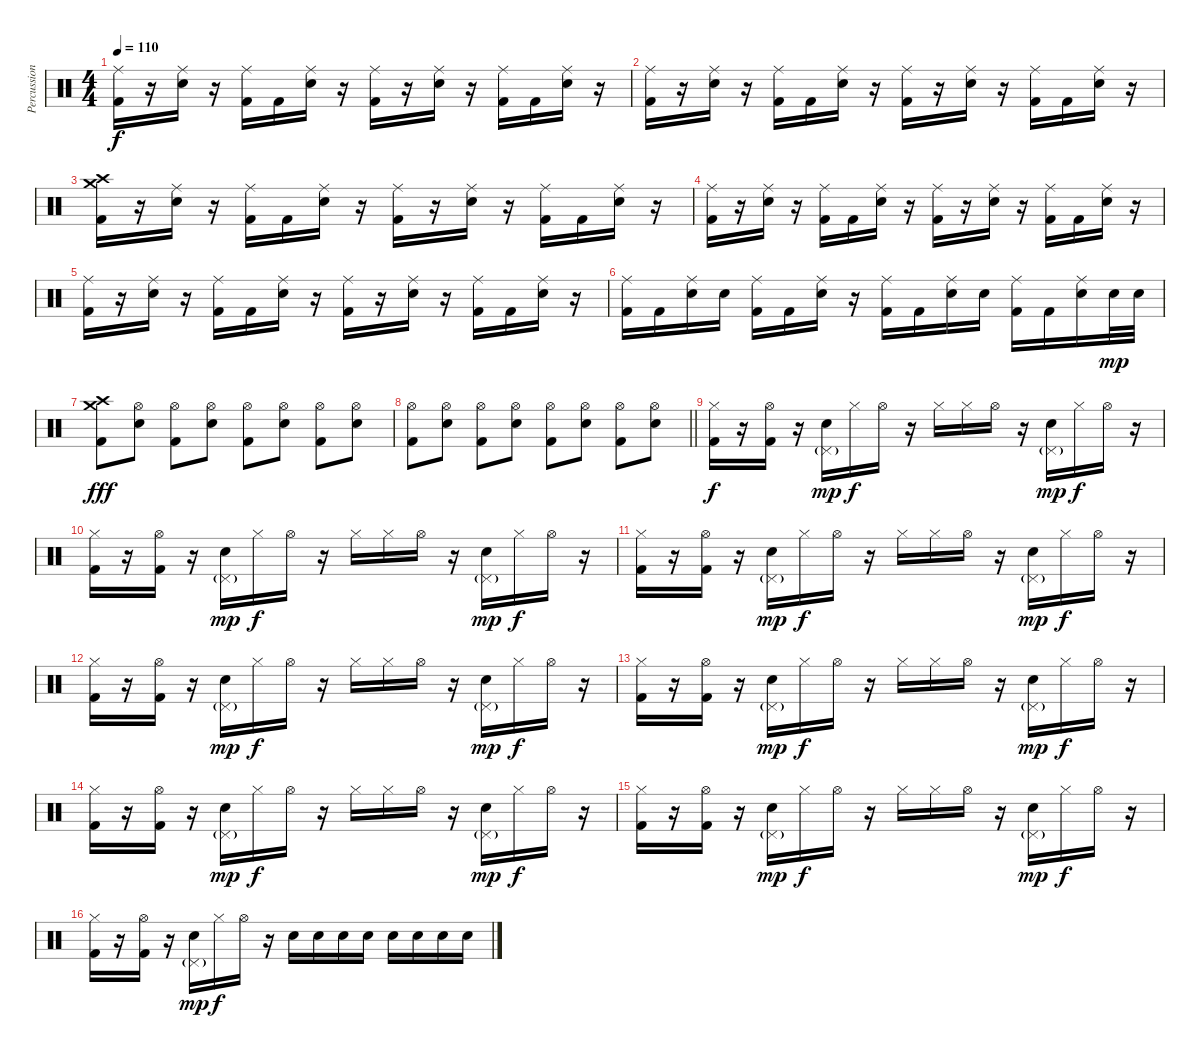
\track ("Percussion" "Percussion") {instrument percussion}
\staff {score}
\articulation defaults
\ts (4 4)
\tempo 110
\clef neutral
\ks c
("Ride (middle)" "Kick (hit) 2").16{dy f} r.16 ("Ride (middle)" "Electric Snare (hit)").16 r.16 ("Ride (middle)" "Kick (hit) 2").16 "Kick (hit) 2".16 ("Ride (middle)" "Electric Snare (hit)").16 r.16 ("Ride (middle)" "Kick (hit) 2").16 r.16 ("Ride (middle)" "Electric Snare (hit)").16 r.16 ("Ride (middle)" "Kick (hit) 2").16 "Kick (hit) 2".16 ("Ride (middle)" "Electric Snare (hit)").16 r.16 |
("Ride (middle)" "Kick (hit) 2").16 r.16 ("Ride (middle)" "Electric Snare (hit)").16 r.16 ("Ride (middle)" "Kick (hit) 2").16 "Kick (hit) 2".16 ("Ride (middle)" "Electric Snare (hit)").16 r.16 ("Ride (middle)" "Kick (hit) 2").16 r.16 ("Ride (middle)" "Electric Snare (hit)").16 r.16 ("Ride (middle)" "Kick (hit) 2").16 "Kick (hit) 2".16 ("Ride (middle)" "Electric Snare (hit)").16 r.16 |
("Crash high (hit)" "Kick (hit) 2" "Crash medium (hit)").16 r.16 ("Ride (middle)" "Electric Snare (hit)").16 r.16 ("Ride (middle)" "Kick (hit) 2").16 "Kick (hit) 2".16 ("Ride (middle)" "Electric Snare (hit)").16 r.16 ("Ride (middle)" "Kick (hit) 2").16 r.16 ("Ride (middle)" "Electric Snare (hit)").16 r.16 ("Ride (middle)" "Kick (hit) 2").16 "Kick (hit) 2".16 ("Ride (middle)" "Electric Snare (hit)").16 r.16 |
("Ride (middle)" "Kick (hit) 2").16 r.16 ("Ride (middle)" "Electric Snare (hit)").16 r.16 ("Ride (middle)" "Kick (hit) 2").16 "Kick (hit) 2".16 ("Ride (middle)" "Electric Snare (hit)").16 r.16 ("Ride (middle)" "Kick (hit) 2").16 r.16 ("Ride (middle)" "Electric Snare (hit)").16 r.16 ("Ride (middle)" "Kick (hit) 2").16 "Kick (hit) 2".16 ("Ride (middle)" "Electric Snare (hit)").16 r.16 |
("Ride (middle)" "Kick (hit) 2").16 r.16 ("Ride (middle)" "Electric Snare (hit)").16 r.16 ("Ride (middle)" "Kick (hit) 2").16 "Kick (hit) 2".16 ("Ride (middle)" "Electric Snare (hit)").16 r.16 ("Ride (middle)" "Kick (hit) 2").16 r.16 ("Ride (middle)" "Electric Snare (hit)").16 r.16 ("Ride (middle)" "Kick (hit) 2").16 "Kick (hit) 2".16 ("Ride (middle)" "Electric Snare (hit)").16 r.16 |
("Ride (middle)" "Kick (hit) 2").16 "Kick (hit) 2".16 ("Ride (middle)" "Electric Snare (hit)").16 "Electric Snare (hit)".16 ("Ride (middle)" "Kick (hit) 2").16 "Kick (hit) 2".16 ("Ride (middle)" "Electric Snare (hit)").16 r.16 ("Ride (middle)" "Kick (hit) 2").16 "Kick (hit) 2".16 ("Ride (middle)" "Electric Snare (hit)").16 "Electric Snare (hit)".16 ("Ride (middle)" "Kick (hit) 2").16 "Kick (hit) 2".16 ("Ride (middle)" "Electric Snare (hit)").16 "Electric Snare (hit)".32{dy mp} "Electric Snare (hit)".32 |
("Kick (hit) 2" "Crash medium (hit)" "Crash high (hit)").8{dy fff} ("Electric Snare (hit)" "Hi-Hat (open)").8 ("Kick (hit) 2" "Hi-Hat (open)").8 ("Electric Snare (hit)" "Hi-Hat (open)").8 ("Kick (hit) 2" "Hi-Hat (open)").8 ("Electric Snare (hit)" "Hi-Hat (open)").8 ("Kick (hit) 2" "Hi-Hat (open)").8 ("Electric Snare (hit)" "Hi-Hat (open)").8 |
\barLineRight lightlight
("Kick (hit) 2" "Hi-Hat (open)").8 ("Electric Snare (hit)" "Hi-Hat (open)").8 ("Kick (hit) 2" "Hi-Hat (open)").8 ("Electric Snare (hit)" "Hi-Hat (open)").8 ("Kick (hit) 2" "Hi-Hat (open)").8 ("Electric Snare (hit)" "Hi-Hat (open)").8 ("Kick (hit) 2" "Hi-Hat (open)").8 ("Electric Snare (hit)" "Hi-Hat (open)").8 |
("Kick (hit) 2" "Hi-Hat (closed)").16{dy f} r.16 ("Kick (hit) 2" "Hi-Hat (open)").16 r.16 ("Electric Snare (hit)" "Pedal Hi-Hat (hit)"{g}).16{dy mp} "Hi-Hat (closed)".16{dy f} "Hi-Hat (open)".16 r.16 "Hi-Hat (closed)".16 "Hi-Hat (closed)".16 "Hi-Hat (open)".16 r.16 ("Electric Snare (hit)" "Pedal Hi-Hat (hit)"{g}).16{dy mp} "Hi-Hat (closed)".16{dy f} "Hi-Hat (open)".16 r.16 |
("Kick (hit) 2" "Hi-Hat (closed)").16 r.16 ("Kick (hit) 2" "Hi-Hat (open)").16 r.16 ("Electric Snare (hit)" "Pedal Hi-Hat (hit)"{g}).16{dy mp} "Hi-Hat (closed)".16{dy f} "Hi-Hat (open)".16 r.16 "Hi-Hat (closed)".16 "Hi-Hat (closed)".16 "Hi-Hat (open)".16 r.16 ("Electric Snare (hit)" "Pedal Hi-Hat (hit)"{g}).16{dy mp} "Hi-Hat (closed)".16{dy f} "Hi-Hat (open)".16 r.16 |
("Kick (hit) 2" "Hi-Hat (closed)").16 r.16 ("Kick (hit) 2" "Hi-Hat (open)").16 r.16 ("Electric Snare (hit)" "Pedal Hi-Hat (hit)"{g}).16{dy mp} "Hi-Hat (closed)".16{dy f} "Hi-Hat (open)".16 r.16 "Hi-Hat (closed)".16 "Hi-Hat (closed)".16 "Hi-Hat (open)".16 r.16 ("Electric Snare (hit)" "Pedal Hi-Hat (hit)"{g}).16{dy mp} "Hi-Hat (closed)".16{dy f} "Hi-Hat (open)".16 r.16 |
("Kick (hit) 2" "Hi-Hat (closed)").16 r.16 ("Kick (hit) 2" "Hi-Hat (open)").16 r.16 ("Electric Snare (hit)" "Pedal Hi-Hat (hit)"{g}).16{dy mp} "Hi-Hat (closed)".16{dy f} "Hi-Hat (open)".16 r.16 "Hi-Hat (closed)".16 "Hi-Hat (closed)".16 "Hi-Hat (open)".16 r.16 ("Electric Snare (hit)" "Pedal Hi-Hat (hit)"{g}).16{dy mp} "Hi-Hat (closed)".16{dy f} "Hi-Hat (open)".16 r.16 |
("Kick (hit) 2" "Hi-Hat (closed)").16 r.16 ("Kick (hit) 2" "Hi-Hat (open)").16 r.16 ("Electric Snare (hit)" "Pedal Hi-Hat (hit)"{g}).16{dy mp} "Hi-Hat (closed)".16{dy f} "Hi-Hat (open)".16 r.16 "Hi-Hat (closed)".16 "Hi-Hat (closed)".16 "Hi-Hat (open)".16 r.16 ("Electric Snare (hit)" "Pedal Hi-Hat (hit)"{g}).16{dy mp} "Hi-Hat (closed)".16{dy f} "Hi-Hat (open)".16 r.16 |
("Kick (hit) 2" "Hi-Hat (closed)").16 r.16 ("Kick (hit) 2" "Hi-Hat (open)").16 r.16 ("Electric Snare (hit)" "Pedal Hi-Hat (hit)"{g}).16{dy mp} "Hi-Hat (closed)".16{dy f} "Hi-Hat (open)".16 r.16 "Hi-Hat (closed)".16 "Hi-Hat (closed)".16 "Hi-Hat (open)".16 r.16 ("Electric Snare (hit)" "Pedal Hi-Hat (hit)"{g}).16{dy mp} "Hi-Hat (closed)".16{dy f} "Hi-Hat (open)".16 r.16 |
("Kick (hit) 2" "Hi-Hat (closed)").16 r.16 ("Kick (hit) 2" "Hi-Hat (open)").16 r.16 ("Electric Snare (hit)" "Pedal Hi-Hat (hit)"{g}).16{dy mp} "Hi-Hat (closed)".16{dy f} "Hi-Hat (open)".16 r.16 "Hi-Hat (closed)".16 "Hi-Hat (closed)".16 "Hi-Hat (open)".16 r.16 ("Electric Snare (hit)" "Pedal Hi-Hat (hit)"{g}).16{dy mp} "Hi-Hat (closed)".16{dy f} "Hi-Hat (open)".16 r.16 |
("Kick (hit) 2" "Hi-Hat (closed)").16 r.16 ("Kick (hit) 2" "Hi-Hat (open)").16 r.16 ("Electric Snare (hit)" "Pedal Hi-Hat (hit)"{g}).16{dy mp} "Hi-Hat (closed)".16{dy f} "Hi-Hat (open)".16 r.16 "Electric Snare (hit)".16 "Electric Snare (hit)".16 "Electric Snare (hit)".16 "Electric Snare (hit)".16 "Electric Snare (hit)".16 "Electric Snare (hit)".16 "Electric Snare (hit)".16 "Electric Snare (hit)".16
